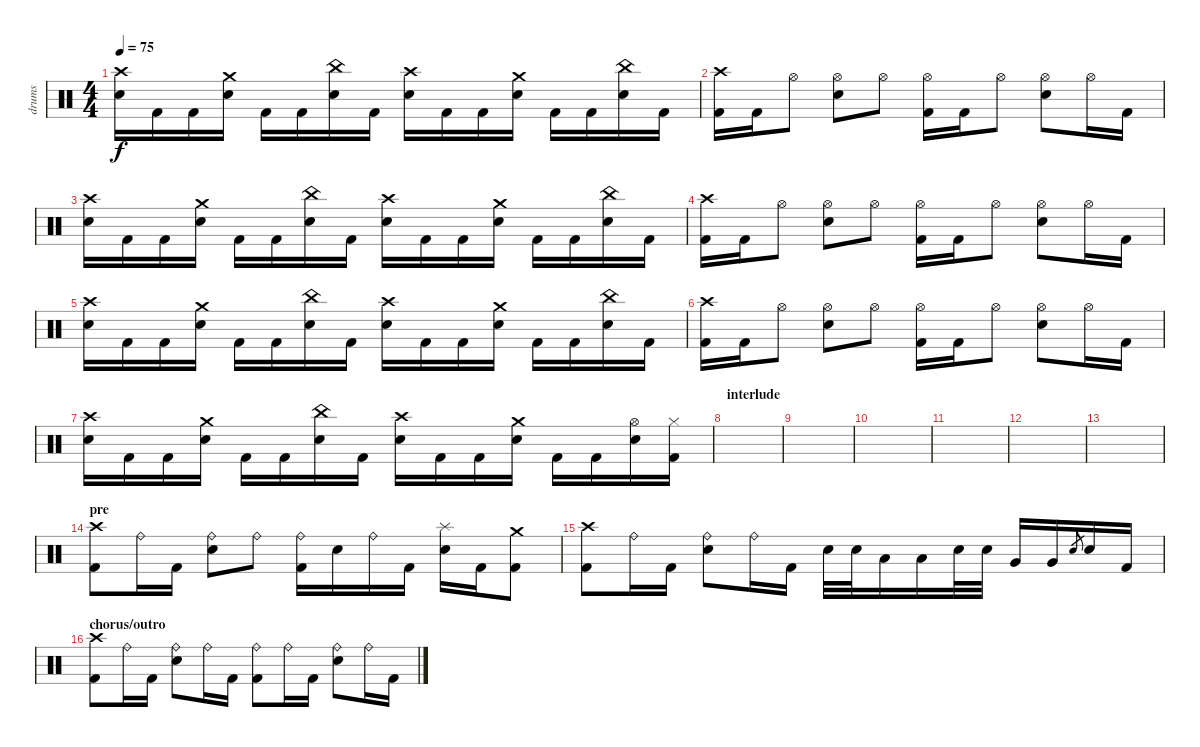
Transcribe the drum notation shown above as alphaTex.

\track ("drums" "drums") {instrument percussion}
\staff {score}
\articulation defaults
\ts (4 4)
\tempo 75
\clef neutral
\ks c
("Crash high (hit)" "Electric Snare (hit)").16{dy f} "Kick (hit) 2".16 "Kick (hit) 2".16 ("Crash medium (hit)" "Electric Snare (hit)").16 "Kick (hit) 2".16 "Kick (hit) 2".16 ("China (hit)" "Electric Snare (hit)").16 "Kick (hit) 2".16 ("Crash high (hit)" "Electric Snare (hit)").16 "Kick (hit) 2".16 "Kick (hit) 2".16 ("Crash medium (hit)" "Electric Snare (hit)").16 "Kick (hit) 2".16 "Kick (hit) 2".16 ("China (hit)" "Electric Snare (hit)").16 "Kick (hit) 2".16 |
("Crash high (hit)" "Kick (hit) 2").16 "Kick (hit) 2".16 "Hi-Hat (open)".8 ("Hi-Hat (open)" "Electric Snare (hit)").8 "Hi-Hat (open)".8 ("Hi-Hat (open)" "Kick (hit) 2").16 "Kick (hit) 2".16 "Hi-Hat (open)".8 ("Hi-Hat (open)" "Electric Snare (hit)").8 "Hi-Hat (open)".16 "Kick (hit) 2".16 |
("Crash high (hit)" "Electric Snare (hit)").16 "Kick (hit) 2".16 "Kick (hit) 2".16 ("Crash medium (hit)" "Electric Snare (hit)").16 "Kick (hit) 2".16 "Kick (hit) 2".16 ("China (hit)" "Electric Snare (hit)").16 "Kick (hit) 2".16 ("Crash high (hit)" "Electric Snare (hit)").16 "Kick (hit) 2".16 "Kick (hit) 2".16 ("Crash medium (hit)" "Electric Snare (hit)").16 "Kick (hit) 2".16 "Kick (hit) 2".16 ("China (hit)" "Electric Snare (hit)").16 "Kick (hit) 2".16 |
("Crash high (hit)" "Kick (hit) 2").16 "Kick (hit) 2".16 "Hi-Hat (open)".8 ("Hi-Hat (open)" "Electric Snare (hit)").8 "Hi-Hat (open)".8 ("Hi-Hat (open)" "Kick (hit) 2").16 "Kick (hit) 2".16 "Hi-Hat (open)".8 ("Hi-Hat (open)" "Electric Snare (hit)").8 "Hi-Hat (open)".16 "Kick (hit) 2".16 |
("Crash high (hit)" "Electric Snare (hit)").16 "Kick (hit) 2".16 "Kick (hit) 2".16 ("Crash medium (hit)" "Electric Snare (hit)").16 "Kick (hit) 2".16 "Kick (hit) 2".16 ("China (hit)" "Electric Snare (hit)").16 "Kick (hit) 2".16 ("Crash high (hit)" "Electric Snare (hit)").16 "Kick (hit) 2".16 "Kick (hit) 2".16 ("Crash medium (hit)" "Electric Snare (hit)").16 "Kick (hit) 2".16 "Kick (hit) 2".16 ("China (hit)" "Electric Snare (hit)").16 "Kick (hit) 2".16 |
("Crash high (hit)" "Kick (hit) 2").16 "Kick (hit) 2".16 "Hi-Hat (open)".8 ("Hi-Hat (open)" "Electric Snare (hit)").8 "Hi-Hat (open)".8 ("Hi-Hat (open)" "Kick (hit) 2").16 "Kick (hit) 2".16 "Hi-Hat (open)".8 ("Hi-Hat (open)" "Electric Snare (hit)").8 "Hi-Hat (open)".16 "Kick (hit) 2".16 |
("Crash high (hit)" "Electric Snare (hit)").16 "Kick (hit) 2".16 "Kick (hit) 2".16 ("Crash medium (hit)" "Electric Snare (hit)").16 "Kick (hit) 2".16 "Kick (hit) 2".16 ("China (hit)" "Electric Snare (hit)").16 "Kick (hit) 2".16 ("Crash high (hit)" "Electric Snare (hit)").16 "Kick (hit) 2".16 "Kick (hit) 2".16 ("Crash medium (hit)" "Electric Snare (hit)").16 "Kick (hit) 2".16 "Kick (hit) 2".16 ("Hi-Hat (open)" "Electric Snare (hit)").16 ("Hi-Hat (closed)" "Kick (hit) 2").16 |
\section ("" "interlude")
|
|
|
|
|
|
\section ("" "pre")
("Crash high (hit)" "Kick (hit) 2").8 "Ride (bell)".16 "Kick (hit) 2".16 ("Ride (bell)" "Electric Snare (hit)").8 "Ride (bell)".8 ("Ride (bell)" "Kick (hit) 2").16 "Electric Snare (hit)".16 "Ride (bell)".16 "Kick (hit) 2".16 ("Splash (hit)" "Electric Snare (hit)").16 "Kick (hit) 2".16 ("Crash medium (hit)" "Kick (hit) 2").8 |
("Crash high (hit)" "Kick (hit) 2").8 "Ride (bell)".16 "Kick (hit) 2".16 ("Ride (bell)" "Electric Snare (hit)").8 "Ride (bell)".16 "Kick (hit) 2".16 "Electric Snare (hit)".32 "Electric Snare (hit)".32 "Low Tom (hit)".16 "Low Tom (hit)".16 "Electric Snare (hit)".32 "Electric Snare (hit)".32 "Very Low Tom (hit)".16 "Very Low Tom (hit)".16 "Electric Snare (hit)".8{gr} "Electric Snare (hit)".16 "Kick (hit) 2".16 |
\section ("" "chorus/outro")
("Crash high (hit)" "Kick (hit) 2").8 "Ride (bell)".16 "Kick (hit) 2".16 ("Ride (bell)" "Electric Snare (hit)").8 "Ride (bell)".16 "Kick (hit) 2".16 ("Ride (bell)" "Kick (hit) 2").8 "Ride (bell)".16 "Kick (hit) 2".16 ("Ride (bell)" "Electric Snare (hit)").8 "Ride (bell)".16 "Kick (hit) 2".16
